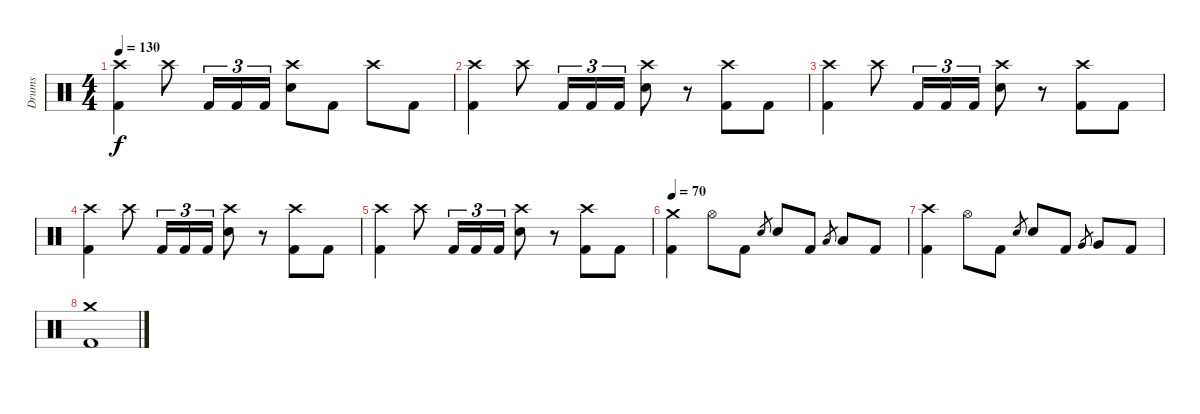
\track ("Drums" "Drums") {instrument percussion}
\staff {score}
\articulation defaults
\ts (4 4)
\tempo 130
\clef neutral
\ks c
("Crash high (hit)" "Kick (hit) 2").4{dy f} "Crash high (hit)".8 "Kick (hit) 2".16{tu (3 2)} "Kick (hit) 2".16{tu (3 2)} "Kick (hit) 2".16{tu (3 2)} ("Crash high (hit)" "Electric Snare (hit)").8 "Kick (hit) 2".8 "Crash high (hit)".8 "Kick (hit) 2".8 |
("Crash high (hit)" "Kick (hit) 2").4 "Crash high (hit)".8 "Kick (hit) 2".16{tu (3 2)} "Kick (hit) 2".16{tu (3 2)} "Kick (hit) 2".16{tu (3 2)} ("Crash high (hit)" "Electric Snare (hit)").8 r.8 ("Crash high (hit)" "Kick (hit) 2").8 "Kick (hit) 2".8 |
("Crash high (hit)" "Kick (hit) 2").4 "Crash high (hit)".8 "Kick (hit) 2".16{tu (3 2)} "Kick (hit) 2".16{tu (3 2)} "Kick (hit) 2".16{tu (3 2)} ("Crash high (hit)" "Electric Snare (hit)").8 r.8 ("Crash high (hit)" "Kick (hit) 2").8 "Kick (hit) 2".8 |
("Crash high (hit)" "Kick (hit) 2").4 "Crash high (hit)".8 "Kick (hit) 2".16{tu (3 2)} "Kick (hit) 2".16{tu (3 2)} "Kick (hit) 2".16{tu (3 2)} ("Crash high (hit)" "Electric Snare (hit)").8 r.8 ("Crash high (hit)" "Kick (hit) 2").8 "Kick (hit) 2".8 |
("Crash high (hit)" "Kick (hit) 2").4 "Crash high (hit)".8 "Kick (hit) 2".16{tu (3 2)} "Kick (hit) 2".16{tu (3 2)} "Kick (hit) 2".16{tu (3 2)} ("Crash high (hit)" "Electric Snare (hit)").8 r.8 ("Crash high (hit)" "Kick (hit) 2").8 "Kick (hit) 2".8 |
\tempo 70
("Crash medium (hit)" "Kick (hit) 2").4 "Hi-Hat (open)".8 "Kick (hit) 2".8 "Electric Snare (hit)".8{gr} "Electric Snare (hit)".8 "Kick (hit) 2".8 "Low Tom (hit)".8{gr} "Low Tom (hit)".8 "Kick (hit) 2".8 |
("Crash high (hit)" "Kick (hit) 2").4 "Hi-Hat (open)".8 "Kick (hit) 2".8 "Electric Snare (hit)".8{gr} "Electric Snare (hit)".8 "Kick (hit) 2".8 "Very Low Tom (hit)".8{gr} "Very Low Tom (hit)".8 "Kick (hit) 2".8 |
("Crash medium (hit)" "Kick (hit) 2").1
